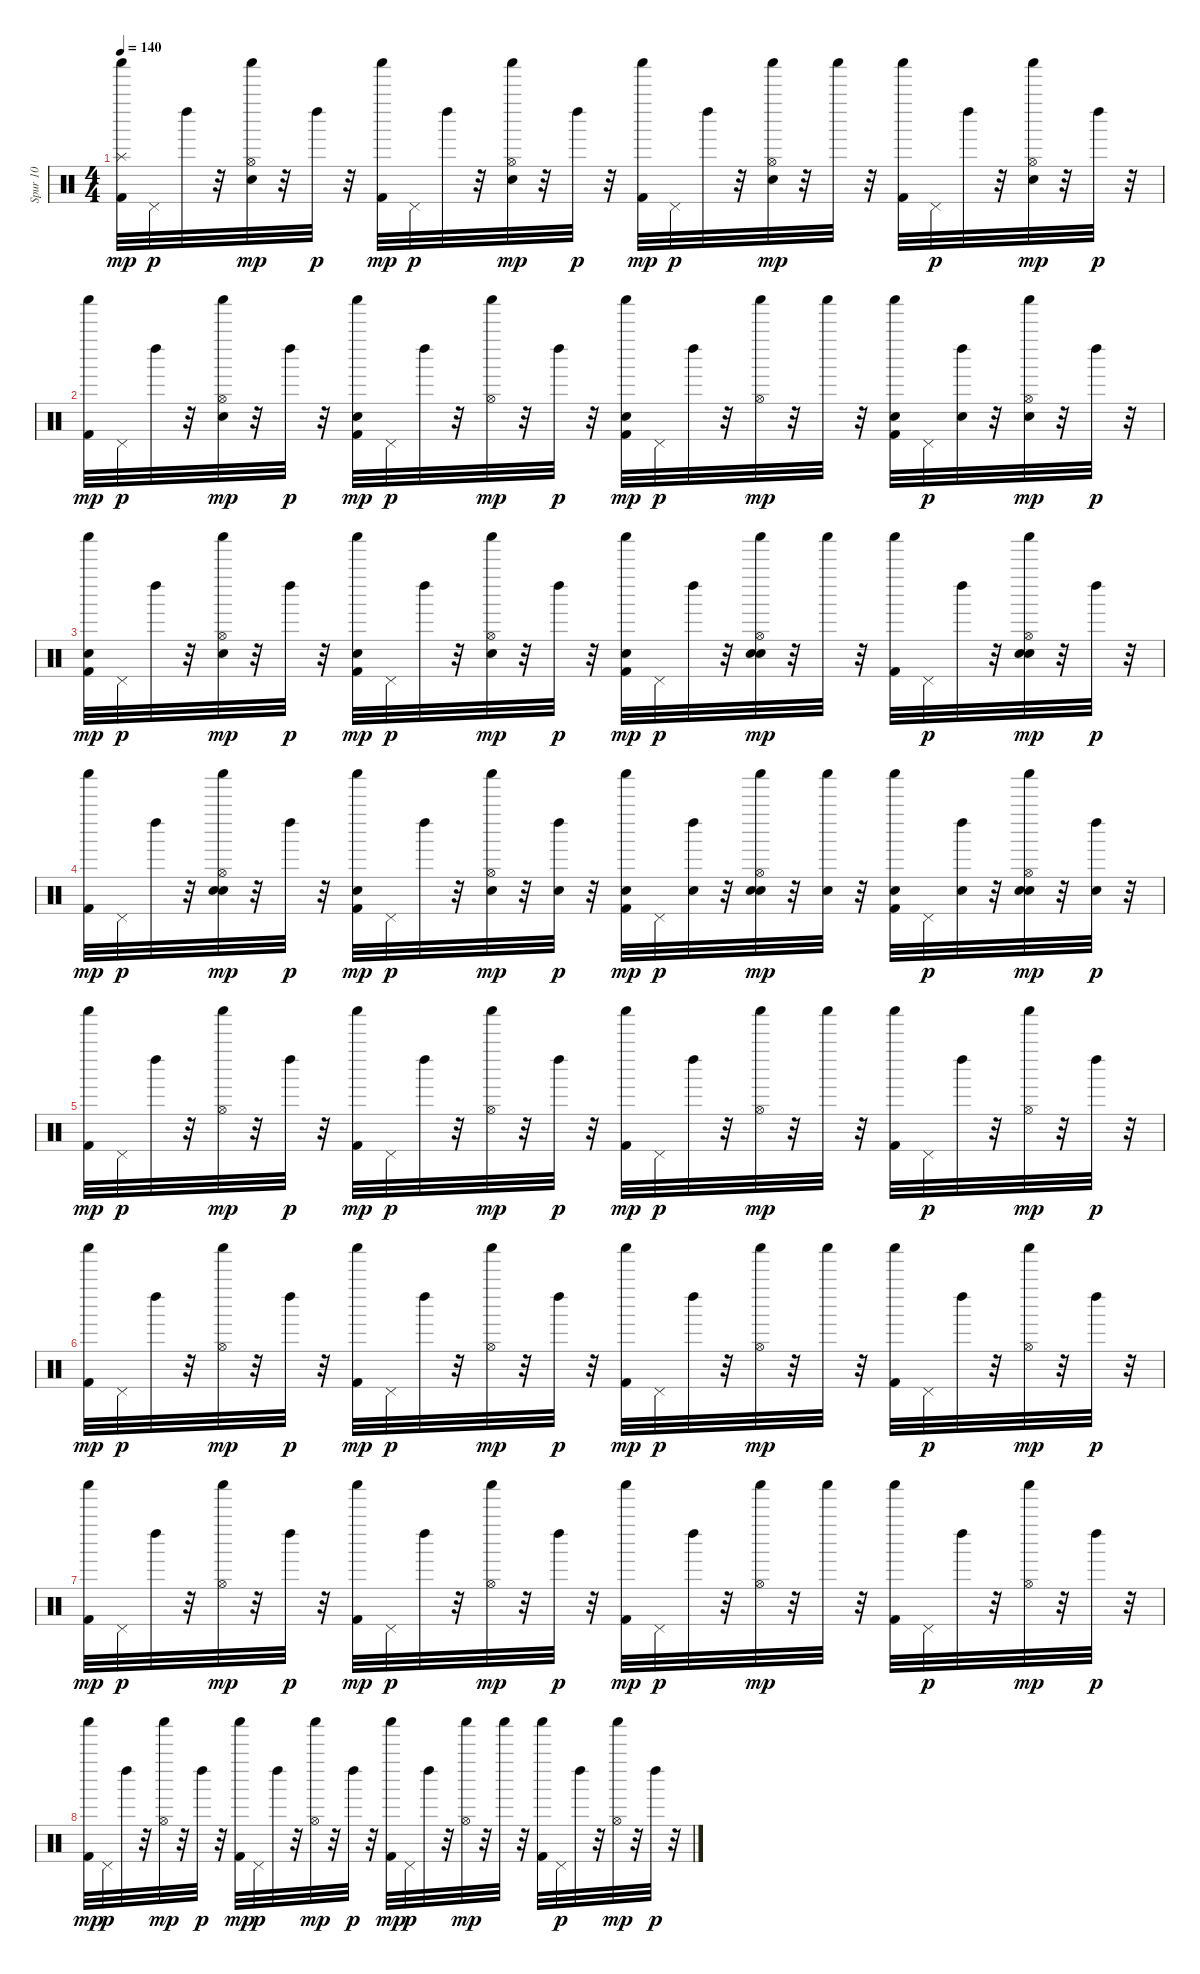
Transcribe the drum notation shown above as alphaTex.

\track ("Spur 10" "Spur 10") {instrument percussion}
\staff {score}
\articulation defaults
\ts (4 4)
\tempo 140
\clef neutral
\ks c
("Kick (hit) 2" "Splash (hit)" "Shaker (hit)").32{dy mp} "Pedal Hi-Hat (hit)".32{dy p} "Left Maraca (hit)".32 r.32 ("Hand Clap (hit)" "Hi-Hat (open)" "Shaker (hit)").32{dy mp} r.32 "Left Maraca (hit)".32{dy p} r.32 ("Kick (hit) 2" "Shaker (hit)").32{dy mp} "Pedal Hi-Hat (hit)".32{dy p} "Left Maraca (hit)".32 r.32 ("Hand Clap (hit)" "Hi-Hat (open)" "Shaker (hit)").32{dy mp} r.32 "Left Maraca (hit)".32{dy p} r.32 ("Kick (hit) 2" "Shaker (hit)").32{dy mp} "Pedal Hi-Hat (hit)".32{dy p} "Left Maraca (hit)".32 r.32 ("Hand Clap (hit)" "Hi-Hat (open)" "Shaker (hit)").32{dy mp} r.32 "Shaker (hit)".32 r.32 ("Kick (hit) 2" "Shaker (hit)").32 "Pedal Hi-Hat (hit)".32{dy p} "Left Maraca (hit)".32 r.32 ("Hand Clap (hit)" "Hi-Hat (open)" "Shaker (hit)").32{dy mp} r.32 "Left Maraca (hit)".32{dy p} r.32 |
("Kick (hit) 2" "Shaker (hit)").32{dy mp} "Pedal Hi-Hat (hit)".32{dy p} "Left Maraca (hit)".32 r.32 ("Hand Clap (hit)" "Hi-Hat (open)" "Shaker (hit)").32{dy mp} r.32 "Left Maraca (hit)".32{dy p} r.32 ("Kick (hit) 2" "Hand Clap (hit)" "Shaker (hit)").32{dy mp} "Pedal Hi-Hat (hit)".32{dy p} "Left Maraca (hit)".32 r.32 ("Hi-Hat (open)" "Shaker (hit)").32{dy mp} r.32 "Left Maraca (hit)".32{dy p} r.32 ("Kick (hit) 2" "Hand Clap (hit)" "Shaker (hit)").32{dy mp} "Pedal Hi-Hat (hit)".32{dy p} "Left Maraca (hit)".32 r.32 ("Hi-Hat (open)" "Shaker (hit)").32{dy mp} r.32 "Shaker (hit)".32 r.32 ("Kick (hit) 2" "Hand Clap (hit)" "Shaker (hit)").32 "Pedal Hi-Hat (hit)".32{dy p} ("Hand Clap (hit)" "Left Maraca (hit)").32 r.32 ("Hand Clap (hit)" "Hi-Hat (open)" "Shaker (hit)").32{dy mp} r.32 "Left Maraca (hit)".32{dy p} r.32 |
("Kick (hit) 2" "Electric Snare (hit)" "Shaker (hit)").32{dy mp} "Pedal Hi-Hat (hit)".32{dy p} "Left Maraca (hit)".32 r.32 ("Hand Clap (hit)" "Hi-Hat (open)" "Shaker (hit)").32{dy mp} r.32 "Left Maraca (hit)".32{dy p} r.32 ("Kick (hit) 2" "Electric Snare (hit)" "Shaker (hit)").32{dy mp} "Pedal Hi-Hat (hit)".32{dy p} "Left Maraca (hit)".32 r.32 ("Hand Clap (hit)" "Hi-Hat (open)" "Shaker (hit)").32{dy mp} r.32 "Left Maraca (hit)".32{dy p} r.32 ("Kick (hit) 2" "Electric Snare (hit)" "Shaker (hit)").32{dy mp} "Pedal Hi-Hat (hit)".32{dy p} "Left Maraca (hit)".32 r.32 ("Hand Clap (hit)" "Electric Snare (hit)" "Hi-Hat (open)" "Shaker (hit)").32{dy mp} r.32 "Shaker (hit)".32 r.32 ("Kick (hit) 2" "Shaker (hit)").32 "Pedal Hi-Hat (hit)".32{dy p} "Left Maraca (hit)".32 r.32 ("Hand Clap (hit)" "Electric Snare (hit)" "Hi-Hat (open)" "Shaker (hit)").32{dy mp} r.32 "Left Maraca (hit)".32{dy p} r.32 |
("Kick (hit) 2" "Shaker (hit)").32{dy mp} "Pedal Hi-Hat (hit)".32{dy p} "Left Maraca (hit)".32 r.32 ("Hand Clap (hit)" "Electric Snare (hit)" "Hi-Hat (open)" "Shaker (hit)").32{dy mp} r.32 "Left Maraca (hit)".32{dy p} r.32 ("Kick (hit) 2" "Hand Clap (hit)" "Shaker (hit)").32{dy mp} "Pedal Hi-Hat (hit)".32{dy p} "Left Maraca (hit)".32 r.32 ("Electric Snare (hit)" "Hi-Hat (open)" "Shaker (hit)").32{dy mp} r.32 ("Hand Clap (hit)" "Left Maraca (hit)").32{dy p} r.32 ("Kick (hit) 2" "Hand Clap (hit)" "Shaker (hit)").32{dy mp} "Pedal Hi-Hat (hit)".32{dy p} ("Hand Clap (hit)" "Left Maraca (hit)").32 r.32 ("Hand Clap (hit)" "Electric Snare (hit)" "Hi-Hat (open)" "Shaker (hit)").32{dy mp} r.32 ("Hand Clap (hit)" "Shaker (hit)").32 r.32 ("Kick (hit) 2" "Hand Clap (hit)" "Shaker (hit)").32 "Pedal Hi-Hat (hit)".32{dy p} ("Hand Clap (hit)" "Left Maraca (hit)").32 r.32 ("Hand Clap (hit)" "Electric Snare (hit)" "Hi-Hat (open)" "Shaker (hit)").32{dy mp} r.32 ("Hand Clap (hit)" "Left Maraca (hit)").32{dy p} r.32 |
("Kick (hit) 2" "Shaker (hit)").32{dy mp} "Pedal Hi-Hat (hit)".32{dy p} "Left Maraca (hit)".32 r.32 ("Hi-Hat (open)" "Shaker (hit)").32{dy mp} r.32 "Left Maraca (hit)".32{dy p} r.32 ("Kick (hit) 2" "Shaker (hit)").32{dy mp} "Pedal Hi-Hat (hit)".32{dy p} "Left Maraca (hit)".32 r.32 ("Hi-Hat (open)" "Shaker (hit)").32{dy mp} r.32 "Left Maraca (hit)".32{dy p} r.32 ("Kick (hit) 2" "Shaker (hit)").32{dy mp} "Pedal Hi-Hat (hit)".32{dy p} "Left Maraca (hit)".32 r.32 ("Hi-Hat (open)" "Shaker (hit)").32{dy mp} r.32 "Shaker (hit)".32 r.32 ("Kick (hit) 2" "Shaker (hit)").32 "Pedal Hi-Hat (hit)".32{dy p} "Left Maraca (hit)".32 r.32 ("Hi-Hat (open)" "Shaker (hit)").32{dy mp} r.32 "Left Maraca (hit)".32{dy p} r.32 |
("Kick (hit) 2" "Shaker (hit)").32{dy mp} "Pedal Hi-Hat (hit)".32{dy p} "Left Maraca (hit)".32 r.32 ("Hi-Hat (open)" "Shaker (hit)").32{dy mp} r.32 "Left Maraca (hit)".32{dy p} r.32 ("Kick (hit) 2" "Shaker (hit)").32{dy mp} "Pedal Hi-Hat (hit)".32{dy p} "Left Maraca (hit)".32 r.32 ("Hi-Hat (open)" "Shaker (hit)").32{dy mp} r.32 "Left Maraca (hit)".32{dy p} r.32 ("Kick (hit) 2" "Shaker (hit)").32{dy mp} "Pedal Hi-Hat (hit)".32{dy p} "Left Maraca (hit)".32 r.32 ("Hi-Hat (open)" "Shaker (hit)").32{dy mp} r.32 "Shaker (hit)".32 r.32 ("Kick (hit) 2" "Shaker (hit)").32 "Pedal Hi-Hat (hit)".32{dy p} "Left Maraca (hit)".32 r.32 ("Hi-Hat (open)" "Shaker (hit)").32{dy mp} r.32 "Left Maraca (hit)".32{dy p} r.32 |
("Kick (hit) 2" "Shaker (hit)").32{dy mp} "Pedal Hi-Hat (hit)".32{dy p} "Left Maraca (hit)".32 r.32 ("Hi-Hat (open)" "Shaker (hit)").32{dy mp} r.32 "Left Maraca (hit)".32{dy p} r.32 ("Kick (hit) 2" "Shaker (hit)").32{dy mp} "Pedal Hi-Hat (hit)".32{dy p} "Left Maraca (hit)".32 r.32 ("Hi-Hat (open)" "Shaker (hit)").32{dy mp} r.32 "Left Maraca (hit)".32{dy p} r.32 ("Kick (hit) 2" "Shaker (hit)").32{dy mp} "Pedal Hi-Hat (hit)".32{dy p} "Left Maraca (hit)".32 r.32 ("Hi-Hat (open)" "Shaker (hit)").32{dy mp} r.32 "Shaker (hit)".32 r.32 ("Kick (hit) 2" "Shaker (hit)").32 "Pedal Hi-Hat (hit)".32{dy p} "Left Maraca (hit)".32 r.32 ("Hi-Hat (open)" "Shaker (hit)").32{dy mp} r.32 "Left Maraca (hit)".32{dy p} r.32 |
("Kick (hit) 2" "Shaker (hit)").32{dy mp} "Pedal Hi-Hat (hit)".32{dy p} "Left Maraca (hit)".32 r.32 ("Hi-Hat (open)" "Shaker (hit)").32{dy mp} r.32 "Left Maraca (hit)".32{dy p} r.32 ("Kick (hit) 2" "Shaker (hit)").32{dy mp} "Pedal Hi-Hat (hit)".32{dy p} "Left Maraca (hit)".32 r.32 ("Hi-Hat (open)" "Shaker (hit)").32{dy mp} r.32 "Left Maraca (hit)".32{dy p} r.32 ("Kick (hit) 2" "Shaker (hit)").32{dy mp} "Pedal Hi-Hat (hit)".32{dy p} "Left Maraca (hit)".32 r.32 ("Hi-Hat (open)" "Shaker (hit)").32{dy mp} r.32 "Shaker (hit)".32 r.32 ("Kick (hit) 2" "Shaker (hit)").32 "Pedal Hi-Hat (hit)".32{dy p} "Left Maraca (hit)".32 r.32 ("Hi-Hat (open)" "Shaker (hit)").32{dy mp} r.32 "Left Maraca (hit)".32{dy p} r.32
